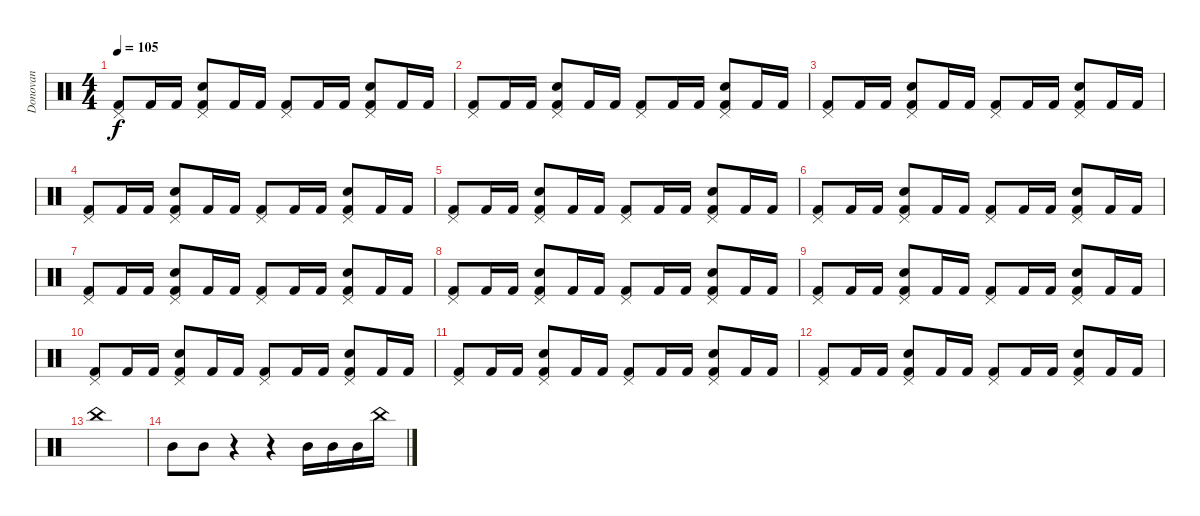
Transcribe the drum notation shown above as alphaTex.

\track ("Donovan" "Donovan") {instrument percussion}
\staff {score}
\articulation defaults
\ts (4 4)
\tempo 105
\clef neutral
\ks c
("Pedal Hi-Hat (hit)" "Kick (hit) 2").8{dy f} "Kick (hit) 2".16 "Kick (hit) 2".16 ("Pedal Hi-Hat (hit)" "Electric Snare (hit)" "Kick (hit) 2").8 "Kick (hit) 2".16 "Kick (hit) 2".16 ("Pedal Hi-Hat (hit)" "Kick (hit) 2").8 "Kick (hit) 2".16 "Kick (hit) 2".16 ("Pedal Hi-Hat (hit)" "Electric Snare (hit)" "Kick (hit) 2").8 "Kick (hit) 2".16 "Kick (hit) 2".16 |
("Pedal Hi-Hat (hit)" "Kick (hit) 2").8 "Kick (hit) 2".16 "Kick (hit) 2".16 ("Pedal Hi-Hat (hit)" "Electric Snare (hit)" "Kick (hit) 2").8 "Kick (hit) 2".16 "Kick (hit) 2".16 ("Pedal Hi-Hat (hit)" "Kick (hit) 2").8 "Kick (hit) 2".16 "Kick (hit) 2".16 ("Pedal Hi-Hat (hit)" "Electric Snare (hit)" "Kick (hit) 2").8 "Kick (hit) 2".16 "Kick (hit) 2".16 |
("Pedal Hi-Hat (hit)" "Kick (hit) 2").8 "Kick (hit) 2".16 "Kick (hit) 2".16 ("Pedal Hi-Hat (hit)" "Electric Snare (hit)" "Kick (hit) 2").8 "Kick (hit) 2".16 "Kick (hit) 2".16 ("Pedal Hi-Hat (hit)" "Kick (hit) 2").8 "Kick (hit) 2".16 "Kick (hit) 2".16 ("Pedal Hi-Hat (hit)" "Electric Snare (hit)" "Kick (hit) 2").8 "Kick (hit) 2".16 "Kick (hit) 2".16 |
("Pedal Hi-Hat (hit)" "Kick (hit) 2").8 "Kick (hit) 2".16 "Kick (hit) 2".16 ("Pedal Hi-Hat (hit)" "Electric Snare (hit)" "Kick (hit) 2").8 "Kick (hit) 2".16 "Kick (hit) 2".16 ("Pedal Hi-Hat (hit)" "Kick (hit) 2").8 "Kick (hit) 2".16 "Kick (hit) 2".16 ("Pedal Hi-Hat (hit)" "Electric Snare (hit)" "Kick (hit) 2").8 "Kick (hit) 2".16 "Kick (hit) 2".16 |
("Pedal Hi-Hat (hit)" "Kick (hit) 2").8 "Kick (hit) 2".16 "Kick (hit) 2".16 ("Pedal Hi-Hat (hit)" "Electric Snare (hit)" "Kick (hit) 2").8 "Kick (hit) 2".16 "Kick (hit) 2".16 ("Pedal Hi-Hat (hit)" "Kick (hit) 2").8 "Kick (hit) 2".16 "Kick (hit) 2".16 ("Pedal Hi-Hat (hit)" "Electric Snare (hit)" "Kick (hit) 2").8 "Kick (hit) 2".16 "Kick (hit) 2".16 |
("Pedal Hi-Hat (hit)" "Kick (hit) 2").8 "Kick (hit) 2".16 "Kick (hit) 2".16 ("Pedal Hi-Hat (hit)" "Electric Snare (hit)" "Kick (hit) 2").8 "Kick (hit) 2".16 "Kick (hit) 2".16 ("Pedal Hi-Hat (hit)" "Kick (hit) 2").8 "Kick (hit) 2".16 "Kick (hit) 2".16 ("Pedal Hi-Hat (hit)" "Electric Snare (hit)" "Kick (hit) 2").8 "Kick (hit) 2".16 "Kick (hit) 2".16 |
("Pedal Hi-Hat (hit)" "Kick (hit) 2").8 "Kick (hit) 2".16 "Kick (hit) 2".16 ("Pedal Hi-Hat (hit)" "Electric Snare (hit)" "Kick (hit) 2").8 "Kick (hit) 2".16 "Kick (hit) 2".16 ("Pedal Hi-Hat (hit)" "Kick (hit) 2").8 "Kick (hit) 2".16 "Kick (hit) 2".16 ("Pedal Hi-Hat (hit)" "Electric Snare (hit)" "Kick (hit) 2").8 "Kick (hit) 2".16 "Kick (hit) 2".16 |
("Pedal Hi-Hat (hit)" "Kick (hit) 2").8 "Kick (hit) 2".16 "Kick (hit) 2".16 ("Pedal Hi-Hat (hit)" "Electric Snare (hit)" "Kick (hit) 2").8 "Kick (hit) 2".16 "Kick (hit) 2".16 ("Pedal Hi-Hat (hit)" "Kick (hit) 2").8 "Kick (hit) 2".16 "Kick (hit) 2".16 ("Pedal Hi-Hat (hit)" "Electric Snare (hit)" "Kick (hit) 2").8 "Kick (hit) 2".16 "Kick (hit) 2".16 |
("Pedal Hi-Hat (hit)" "Kick (hit) 2").8 "Kick (hit) 2".16 "Kick (hit) 2".16 ("Pedal Hi-Hat (hit)" "Electric Snare (hit)" "Kick (hit) 2").8 "Kick (hit) 2".16 "Kick (hit) 2".16 ("Pedal Hi-Hat (hit)" "Kick (hit) 2").8 "Kick (hit) 2".16 "Kick (hit) 2".16 ("Pedal Hi-Hat (hit)" "Electric Snare (hit)" "Kick (hit) 2").8 "Kick (hit) 2".16 "Kick (hit) 2".16 |
("Pedal Hi-Hat (hit)" "Kick (hit) 2").8 "Kick (hit) 2".16 "Kick (hit) 2".16 ("Pedal Hi-Hat (hit)" "Electric Snare (hit)" "Kick (hit) 2").8 "Kick (hit) 2".16 "Kick (hit) 2".16 ("Pedal Hi-Hat (hit)" "Kick (hit) 2").8 "Kick (hit) 2".16 "Kick (hit) 2".16 ("Pedal Hi-Hat (hit)" "Electric Snare (hit)" "Kick (hit) 2").8 "Kick (hit) 2".16 "Kick (hit) 2".16 |
("Pedal Hi-Hat (hit)" "Kick (hit) 2").8 "Kick (hit) 2".16 "Kick (hit) 2".16 ("Pedal Hi-Hat (hit)" "Electric Snare (hit)" "Kick (hit) 2").8 "Kick (hit) 2".16 "Kick (hit) 2".16 ("Pedal Hi-Hat (hit)" "Kick (hit) 2").8 "Kick (hit) 2".16 "Kick (hit) 2".16 ("Pedal Hi-Hat (hit)" "Electric Snare (hit)" "Kick (hit) 2").8 "Kick (hit) 2".16 "Kick (hit) 2".16 |
("Pedal Hi-Hat (hit)" "Kick (hit) 2").8 "Kick (hit) 2".16 "Kick (hit) 2".16 ("Pedal Hi-Hat (hit)" "Electric Snare (hit)" "Kick (hit) 2").8 "Kick (hit) 2".16 "Kick (hit) 2".16 ("Pedal Hi-Hat (hit)" "Kick (hit) 2").8 "Kick (hit) 2".16 "Kick (hit) 2".16 ("Pedal Hi-Hat (hit)" "Electric Snare (hit)" "Kick (hit) 2").8 "Kick (hit) 2".16 "Kick (hit) 2".16 |
"China (hit)".1 |
"Mid Tom (hit)".8 "Mid Tom (hit)".8 r.4 r.4 "Mid Tom (hit)".16 "Mid Tom (hit)".16 "Mid Tom (hit)".16 "China (hit)".16
